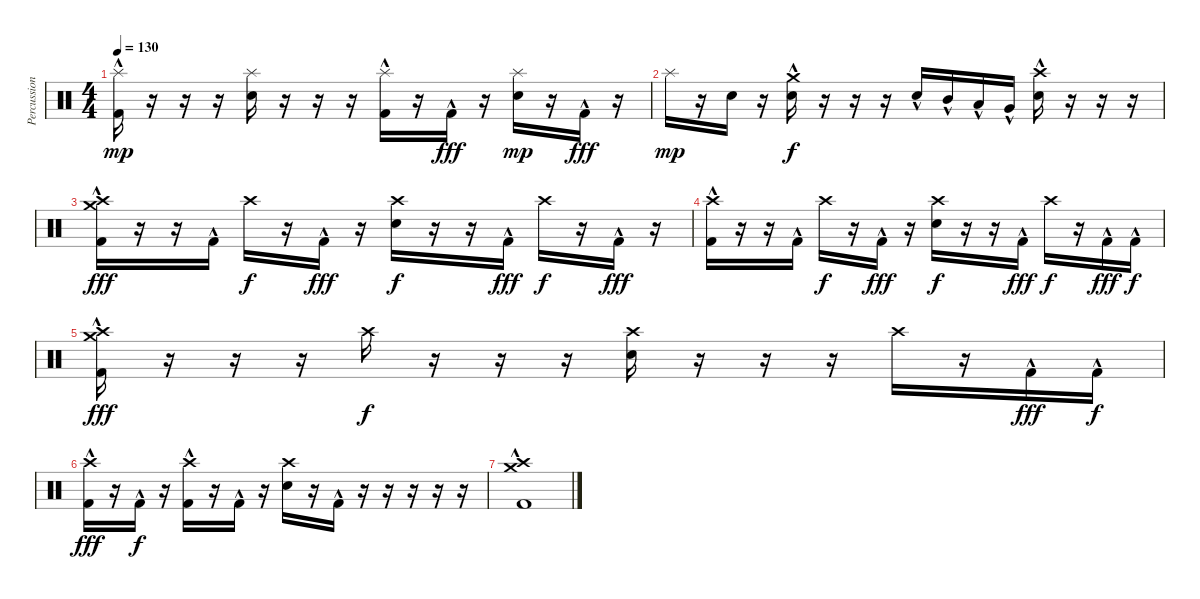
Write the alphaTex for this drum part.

\track ("Percussion" "Percussion") {instrument percussion}
\staff {score}
\articulation defaults
\ts (4 4)
\tempo 130
\clef neutral
\ks c
("Kick (hit) 2"{hac} "Splash (hit)").16{dy mp} r.16 r.16 r.16 ("Electric Snare (hit)" "Splash (hit)").16 r.16 r.16 r.16 ("Kick (hit) 2"{hac} "Splash (hit)").16 r.16 "Kick (hit) 2"{hac}.16{dy fff} r.16 ("Electric Snare (hit)" "Splash (hit)").16{dy mp} r.16 "Kick (hit) 2"{hac}.16{dy fff} r.16 |
"Splash (hit)".16{dy mp} r.16 "Electric Snare (hit)".16 r.16 ("Electric Snare (hit)"{hac} "Crash medium (hit)"{hac}).16{dy f} r.16 r.16 r.16 "Electric Snare (hit)"{hac}.16 "Mid Tom (hit)"{hac}.16 "Low Tom (hit)"{hac}.16 "Very Low Tom (hit)"{hac}.16 ("Electric Snare (hit)"{hac} "Crash high (hit)"{hac}).16 r.16 r.16 r.16 |
("Kick (hit) 2"{hac} "Crash medium (hit)" "Crash high (hit)").16{dy fff} r.16 r.16 "Kick (hit) 2"{hac}.16 "Crash high (hit)".16{dy f} r.16 "Kick (hit) 2"{hac}.16{dy fff} r.16 ("Electric Snare (hit)" "Crash high (hit)").16{dy f} r.16 r.16 "Kick (hit) 2"{hac}.16{dy fff} "Crash high (hit)".16{dy f} r.16 "Kick (hit) 2"{hac}.16{dy fff} r.16 |
("Kick (hit) 2"{hac} "Crash high (hit)").16 r.16 r.16 "Kick (hit) 2"{hac}.16 "Crash high (hit)".16{dy f} r.16 "Kick (hit) 2"{hac}.16{dy fff} r.16 ("Electric Snare (hit)" "Crash high (hit)").16{dy f} r.16 r.16 "Kick (hit) 2"{hac}.16{dy fff} "Crash high (hit)".16{dy f} r.16 "Kick (hit) 2"{hac}.16{dy fff} "Kick (hit) 2"{hac}.16{dy f} |
("Kick (hit) 2"{hac} "Crash medium (hit)" "Crash high (hit)").16{dy fff} r.16 r.16 r.16 "Crash high (hit)".16{dy f} r.16 r.16 r.16 ("Electric Snare (hit)" "Crash high (hit)").16 r.16 r.16 r.16 "Crash high (hit)".16 r.16 "Kick (hit) 2"{hac}.16{dy fff} "Kick (hit) 2"{hac}.16{dy f} |
("Kick (hit) 2"{hac} "Crash high (hit)").16{dy fff} r.16 "Kick (hit) 2"{hac}.16{dy f} r.16 ("Kick (hit) 2"{hac} "Crash high (hit)").16 r.16 "Kick (hit) 2"{hac}.16 r.16 ("Electric Snare (hit)" "Crash high (hit)").16 r.16 "Kick (hit) 2"{hac}.16 r.16 r.16 r.16 r.16 r.16 |
("Kick (hit) 2"{hac} "Crash medium (hit)"{hac} "Crash high (hit)"{hac}).1
